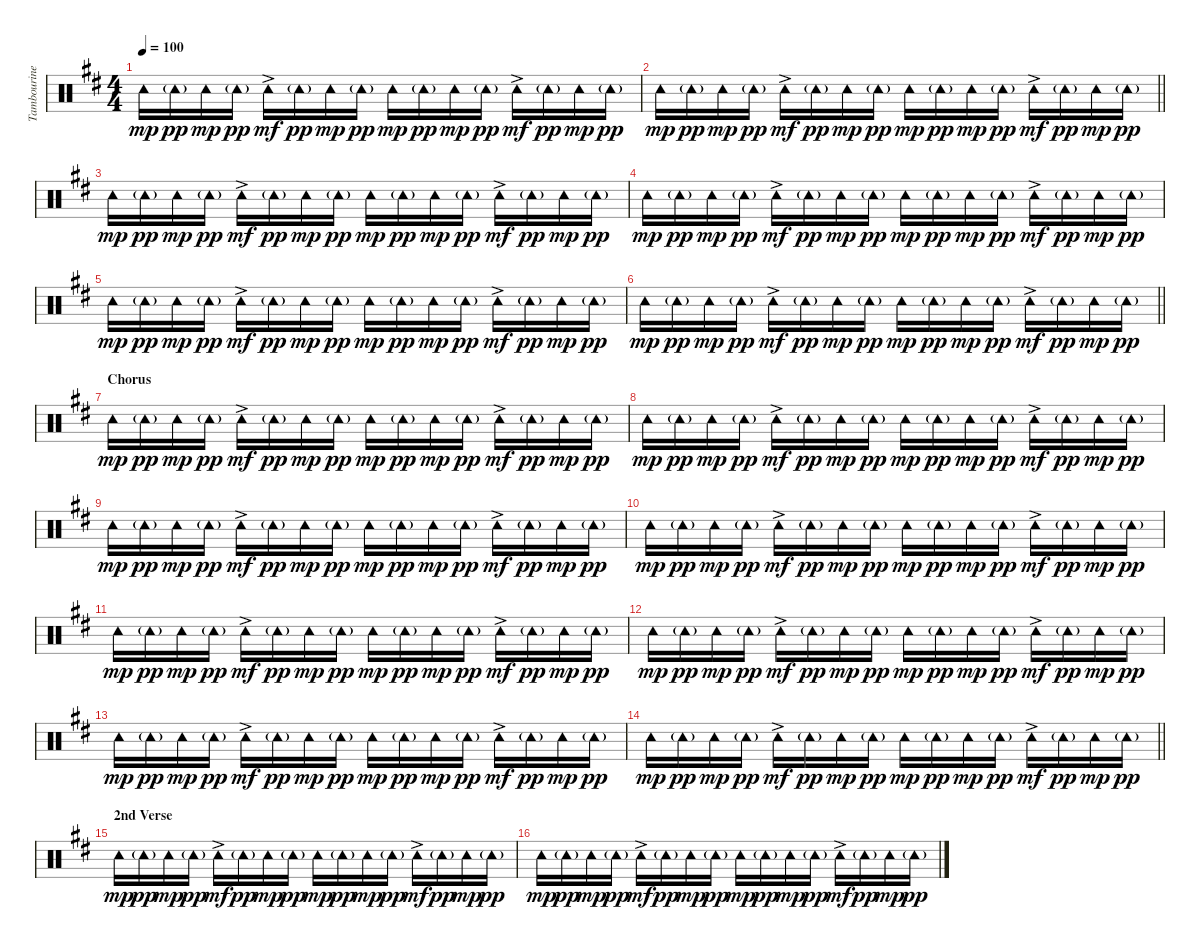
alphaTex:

\track ("Tambourine" "Tambourine") {instrument percussion}
\staff {score}
\articulation defaults
\ts (4 4)
\tempo 100
\clef neutral
\ks d "Tambourine (hit)".16{dy mp} "Tambourine (hit)"{g}.16{dy pp} "Tambourine (hit)".16{dy mp} "Tambourine (hit)"{g}.16{dy pp} "Tambourine (hit)"{ac}.16{dy mf} "Tambourine (hit)"{g}.16{dy pp} "Tambourine (hit)".16{dy mp} "Tambourine (hit)"{g}.16{dy pp} "Tambourine (hit)".16{dy mp} "Tambourine (hit)"{g}.16{dy pp} "Tambourine (hit)".16{dy mp} "Tambourine (hit)"{g}.16{dy pp} "Tambourine (hit)"{ac}.16{dy mf} "Tambourine (hit)"{g}.16{dy pp} "Tambourine (hit)".16{dy mp} "Tambourine (hit)"{g}.16{dy pp}
|
\barLineRight lightlight "Tambourine (hit)".16{dy mp} "Tambourine (hit)"{g}.16{dy pp} "Tambourine (hit)".16{dy mp} "Tambourine (hit)"{g}.16{dy pp} "Tambourine (hit)"{ac}.16{dy mf} "Tambourine (hit)"{g}.16{dy pp} "Tambourine (hit)".16{dy mp} "Tambourine (hit)"{g}.16{dy pp} "Tambourine (hit)".16{dy mp} "Tambourine (hit)"{g}.16{dy pp} "Tambourine (hit)".16{dy mp} "Tambourine (hit)"{g}.16{dy pp} "Tambourine (hit)"{ac}.16{dy mf} "Tambourine (hit)"{g}.16{dy pp} "Tambourine (hit)".16{dy mp} "Tambourine (hit)"{g}.16{dy pp}
|
"Tambourine (hit)".16{dy mp} "Tambourine (hit)"{g}.16{dy pp} "Tambourine (hit)".16{dy mp} "Tambourine (hit)"{g}.16{dy pp} "Tambourine (hit)"{ac}.16{dy mf} "Tambourine (hit)"{g}.16{dy pp} "Tambourine (hit)".16{dy mp} "Tambourine (hit)"{g}.16{dy pp} "Tambourine (hit)".16{dy mp} "Tambourine (hit)"{g}.16{dy pp} "Tambourine (hit)".16{dy mp} "Tambourine (hit)"{g}.16{dy pp} "Tambourine (hit)"{ac}.16{dy mf} "Tambourine (hit)"{g}.16{dy pp} "Tambourine (hit)".16{dy mp} "Tambourine (hit)"{g}.16{dy pp} |
"Tambourine (hit)".16{dy mp} "Tambourine (hit)"{g}.16{dy pp} "Tambourine (hit)".16{dy mp} "Tambourine (hit)"{g}.16{dy pp} "Tambourine (hit)"{ac}.16{dy mf} "Tambourine (hit)"{g}.16{dy pp} "Tambourine (hit)".16{dy mp} "Tambourine (hit)"{g}.16{dy pp} "Tambourine (hit)".16{dy mp} "Tambourine (hit)"{g}.16{dy pp} "Tambourine (hit)".16{dy mp} "Tambourine (hit)"{g}.16{dy pp} "Tambourine (hit)"{ac}.16{dy mf} "Tambourine (hit)"{g}.16{dy pp} "Tambourine (hit)".16{dy mp} "Tambourine (hit)"{g}.16{dy pp} |
"Tambourine (hit)".16{dy mp} "Tambourine (hit)"{g}.16{dy pp} "Tambourine (hit)".16{dy mp} "Tambourine (hit)"{g}.16{dy pp} "Tambourine (hit)"{ac}.16{dy mf} "Tambourine (hit)"{g}.16{dy pp} "Tambourine (hit)".16{dy mp} "Tambourine (hit)"{g}.16{dy pp} "Tambourine (hit)".16{dy mp} "Tambourine (hit)"{g}.16{dy pp} "Tambourine (hit)".16{dy mp} "Tambourine (hit)"{g}.16{dy pp} "Tambourine (hit)"{ac}.16{dy mf} "Tambourine (hit)"{g}.16{dy pp} "Tambourine (hit)".16{dy mp} "Tambourine (hit)"{g}.16{dy pp} |
\barLineRight lightlight "Tambourine (hit)".16{dy mp} "Tambourine (hit)"{g}.16{dy pp} "Tambourine (hit)".16{dy mp} "Tambourine (hit)"{g}.16{dy pp} "Tambourine (hit)"{ac}.16{dy mf} "Tambourine (hit)"{g}.16{dy pp} "Tambourine (hit)".16{dy mp} "Tambourine (hit)"{g}.16{dy pp} "Tambourine (hit)".16{dy mp} "Tambourine (hit)"{g}.16{dy pp} "Tambourine (hit)".16{dy mp} "Tambourine (hit)"{g}.16{dy pp} "Tambourine (hit)"{ac}.16{dy mf} "Tambourine (hit)"{g}.16{dy pp} "Tambourine (hit)".16{dy mp} "Tambourine (hit)"{g}.16{dy pp}
|
\section ("" "Chorus")
"Tambourine (hit)".16{dy mp} "Tambourine (hit)"{g}.16{dy pp} "Tambourine (hit)".16{dy mp} "Tambourine (hit)"{g}.16{dy pp} "Tambourine (hit)"{ac}.16{dy mf} "Tambourine (hit)"{g}.16{dy pp} "Tambourine (hit)".16{dy mp} "Tambourine (hit)"{g}.16{dy pp} "Tambourine (hit)".16{dy mp} "Tambourine (hit)"{g}.16{dy pp} "Tambourine (hit)".16{dy mp} "Tambourine (hit)"{g}.16{dy pp} "Tambourine (hit)"{ac}.16{dy mf} "Tambourine (hit)"{g}.16{dy pp} "Tambourine (hit)".16{dy mp} "Tambourine (hit)"{g}.16{dy pp} |
"Tambourine (hit)".16{dy mp} "Tambourine (hit)"{g}.16{dy pp} "Tambourine (hit)".16{dy mp} "Tambourine (hit)"{g}.16{dy pp} "Tambourine (hit)"{ac}.16{dy mf} "Tambourine (hit)"{g}.16{dy pp} "Tambourine (hit)".16{dy mp} "Tambourine (hit)"{g}.16{dy pp} "Tambourine (hit)".16{dy mp} "Tambourine (hit)"{g}.16{dy pp} "Tambourine (hit)".16{dy mp} "Tambourine (hit)"{g}.16{dy pp} "Tambourine (hit)"{ac}.16{dy mf} "Tambourine (hit)"{g}.16{dy pp} "Tambourine (hit)".16{dy mp} "Tambourine (hit)"{g}.16{dy pp} |
"Tambourine (hit)".16{dy mp} "Tambourine (hit)"{g}.16{dy pp} "Tambourine (hit)".16{dy mp} "Tambourine (hit)"{g}.16{dy pp} "Tambourine (hit)"{ac}.16{dy mf} "Tambourine (hit)"{g}.16{dy pp} "Tambourine (hit)".16{dy mp} "Tambourine (hit)"{g}.16{dy pp} "Tambourine (hit)".16{dy mp} "Tambourine (hit)"{g}.16{dy pp} "Tambourine (hit)".16{dy mp} "Tambourine (hit)"{g}.16{dy pp} "Tambourine (hit)"{ac}.16{dy mf} "Tambourine (hit)"{g}.16{dy pp} "Tambourine (hit)".16{dy mp} "Tambourine (hit)"{g}.16{dy pp} |
"Tambourine (hit)".16{dy mp} "Tambourine (hit)"{g}.16{dy pp} "Tambourine (hit)".16{dy mp} "Tambourine (hit)"{g}.16{dy pp} "Tambourine (hit)"{ac}.16{dy mf} "Tambourine (hit)"{g}.16{dy pp} "Tambourine (hit)".16{dy mp} "Tambourine (hit)"{g}.16{dy pp} "Tambourine (hit)".16{dy mp} "Tambourine (hit)"{g}.16{dy pp} "Tambourine (hit)".16{dy mp} "Tambourine (hit)"{g}.16{dy pp} "Tambourine (hit)"{ac}.16{dy mf} "Tambourine (hit)"{g}.16{dy pp} "Tambourine (hit)".16{dy mp} "Tambourine (hit)"{g}.16{dy pp} |
"Tambourine (hit)".16{dy mp} "Tambourine (hit)"{g}.16{dy pp} "Tambourine (hit)".16{dy mp} "Tambourine (hit)"{g}.16{dy pp} "Tambourine (hit)"{ac}.16{dy mf} "Tambourine (hit)"{g}.16{dy pp} "Tambourine (hit)".16{dy mp} "Tambourine (hit)"{g}.16{dy pp} "Tambourine (hit)".16{dy mp} "Tambourine (hit)"{g}.16{dy pp} "Tambourine (hit)".16{dy mp} "Tambourine (hit)"{g}.16{dy pp} "Tambourine (hit)"{ac}.16{dy mf} "Tambourine (hit)"{g}.16{dy pp} "Tambourine (hit)".16{dy mp} "Tambourine (hit)"{g}.16{dy pp} |
"Tambourine (hit)".16{dy mp} "Tambourine (hit)"{g}.16{dy pp} "Tambourine (hit)".16{dy mp} "Tambourine (hit)"{g}.16{dy pp} "Tambourine (hit)"{ac}.16{dy mf} "Tambourine (hit)"{g}.16{dy pp} "Tambourine (hit)".16{dy mp} "Tambourine (hit)"{g}.16{dy pp} "Tambourine (hit)".16{dy mp} "Tambourine (hit)"{g}.16{dy pp} "Tambourine (hit)".16{dy mp} "Tambourine (hit)"{g}.16{dy pp} "Tambourine (hit)"{ac}.16{dy mf} "Tambourine (hit)"{g}.16{dy pp} "Tambourine (hit)".16{dy mp} "Tambourine (hit)"{g}.16{dy pp} |
"Tambourine (hit)".16{dy mp} "Tambourine (hit)"{g}.16{dy pp} "Tambourine (hit)".16{dy mp} "Tambourine (hit)"{g}.16{dy pp} "Tambourine (hit)"{ac}.16{dy mf} "Tambourine (hit)"{g}.16{dy pp} "Tambourine (hit)".16{dy mp} "Tambourine (hit)"{g}.16{dy pp} "Tambourine (hit)".16{dy mp} "Tambourine (hit)"{g}.16{dy pp} "Tambourine (hit)".16{dy mp} "Tambourine (hit)"{g}.16{dy pp} "Tambourine (hit)"{ac}.16{dy mf} "Tambourine (hit)"{g}.16{dy pp} "Tambourine (hit)".16{dy mp} "Tambourine (hit)"{g}.16{dy pp} |
\barLineRight lightlight "Tambourine (hit)".16{dy mp} "Tambourine (hit)"{g}.16{dy pp} "Tambourine (hit)".16{dy mp} "Tambourine (hit)"{g}.16{dy pp} "Tambourine (hit)"{ac}.16{dy mf} "Tambourine (hit)"{g}.16{dy pp} "Tambourine (hit)".16{dy mp} "Tambourine (hit)"{g}.16{dy pp} "Tambourine (hit)".16{dy mp} "Tambourine (hit)"{g}.16{dy pp} "Tambourine (hit)".16{dy mp} "Tambourine (hit)"{g}.16{dy pp} "Tambourine (hit)"{ac}.16{dy mf} "Tambourine (hit)"{g}.16{dy pp} "Tambourine (hit)".16{dy mp} "Tambourine (hit)"{g}.16{dy pp}
|
\section ("" "2nd Verse")
"Tambourine (hit)".16{dy mp} "Tambourine (hit)"{g}.16{dy pp} "Tambourine (hit)".16{dy mp} "Tambourine (hit)"{g}.16{dy pp} "Tambourine (hit)"{ac}.16{dy mf} "Tambourine (hit)"{g}.16{dy pp} "Tambourine (hit)".16{dy mp} "Tambourine (hit)"{g}.16{dy pp} "Tambourine (hit)".16{dy mp} "Tambourine (hit)"{g}.16{dy pp} "Tambourine (hit)".16{dy mp} "Tambourine (hit)"{g}.16{dy pp} "Tambourine (hit)"{ac}.16{dy mf} "Tambourine (hit)"{g}.16{dy pp} "Tambourine (hit)".16{dy mp} "Tambourine (hit)"{g}.16{dy pp} |
"Tambourine (hit)".16{dy mp} "Tambourine (hit)"{g}.16{dy pp} "Tambourine (hit)".16{dy mp} "Tambourine (hit)"{g}.16{dy pp} "Tambourine (hit)"{ac}.16{dy mf} "Tambourine (hit)"{g}.16{dy pp} "Tambourine (hit)".16{dy mp} "Tambourine (hit)"{g}.16{dy pp} "Tambourine (hit)".16{dy mp} "Tambourine (hit)"{g}.16{dy pp} "Tambourine (hit)".16{dy mp} "Tambourine (hit)"{g}.16{dy pp} "Tambourine (hit)"{ac}.16{dy mf} "Tambourine (hit)"{g}.16{dy pp} "Tambourine (hit)".16{dy mp} "Tambourine (hit)"{g}.16{dy pp}
